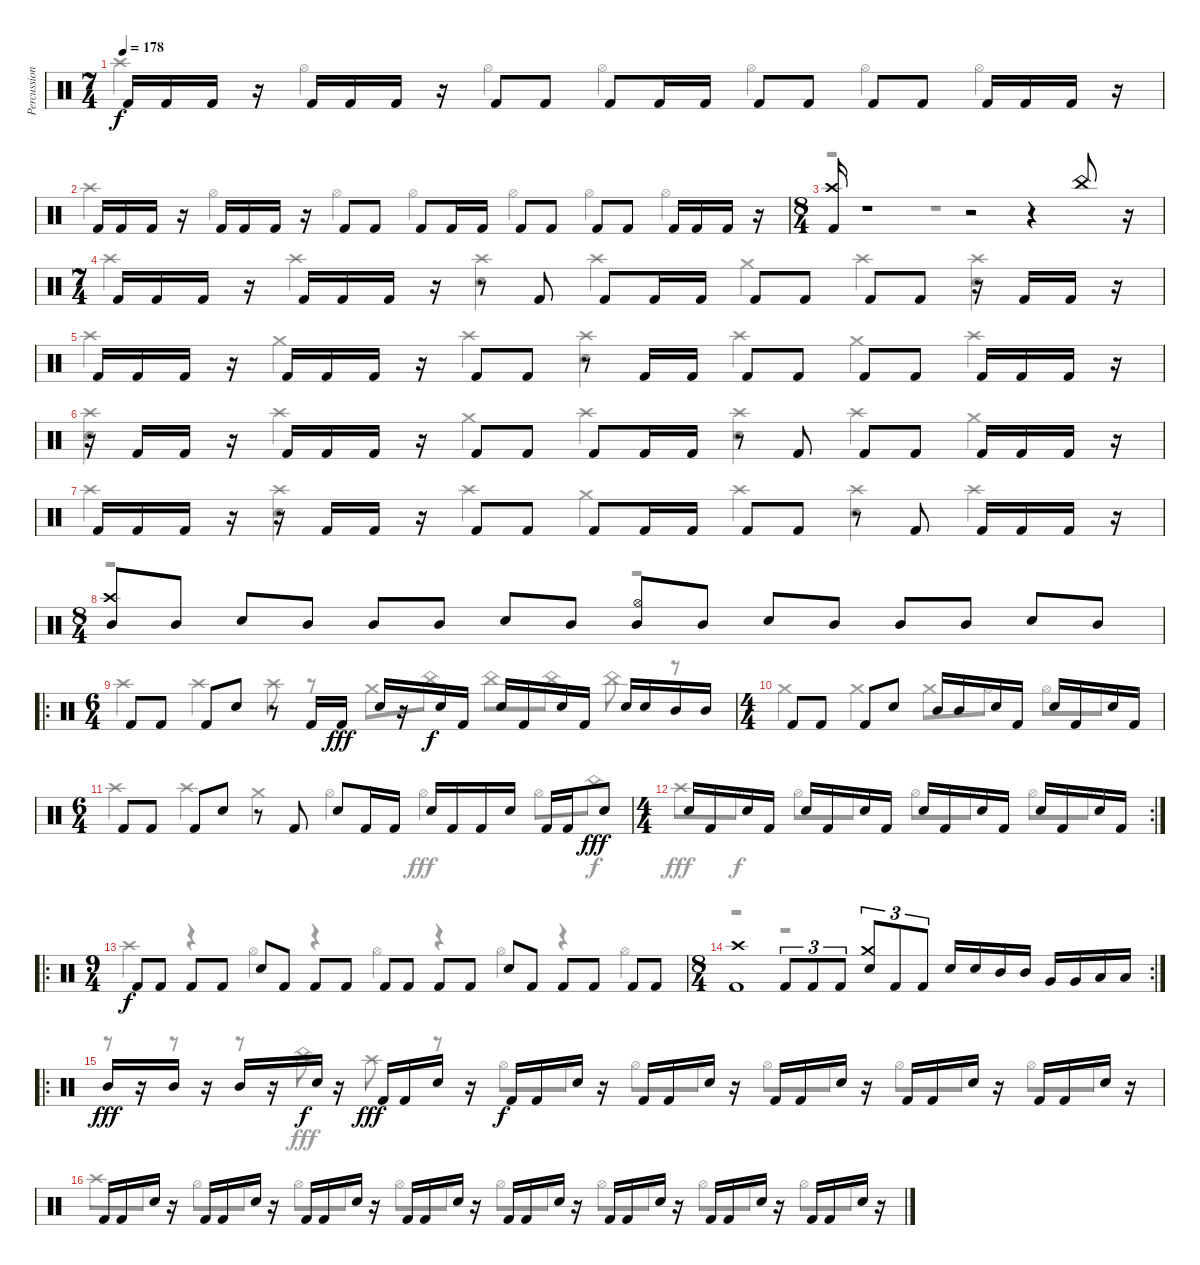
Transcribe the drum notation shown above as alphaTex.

\track ("Percussion" "Percussion") {instrument percussion}
\staff {score}
\articulation defaults
\voice
\ts (7 4)
\tempo 178
\clef neutral
\ks c "Kick (hit) 2".16{dy f} "Kick (hit) 2".16 "Kick (hit) 2".16
r.16 "Kick (hit) 2".16 "Kick (hit) 2".16 "Kick (hit) 2".16 r.16 "Kick (hit) 2".8 "Kick (hit) 2".8 "Kick (hit) 2".8 "Kick (hit) 2".16 "Kick (hit) 2".16 "Kick (hit) 2".8 "Kick (hit) 2".8 "Kick (hit) 2".8 "Kick (hit) 2".8 "Kick (hit) 2".16 "Kick (hit) 2".16 "Kick (hit) 2".16 r.16 |
"Kick (hit) 2".16 "Kick (hit) 2".16 "Kick (hit) 2".16 r.16 "Kick (hit) 2".16 "Kick (hit) 2".16 "Kick (hit) 2".16 r.16 "Kick (hit) 2".8 "Kick (hit) 2".8 "Kick (hit) 2".8 "Kick (hit) 2".16 "Kick (hit) 2".16 "Kick (hit) 2".8 "Kick (hit) 2".8 "Kick (hit) 2".8 "Kick (hit) 2".8 "Kick (hit) 2".16 "Kick (hit) 2".16 "Kick (hit) 2".16 r.16 |
\ts (8 4)
("Crash high (hit)" "Kick (hit) 2").16 r.1 r.2 r.4 "China (hit)".8 r.16 |
\ts (7 4)
"Kick (hit) 2".16 "Kick (hit) 2".16 "Kick (hit) 2".16 r.16 "Kick (hit) 2".16 "Kick (hit) 2".16 "Kick (hit) 2".16 r.16 r.8 "Kick (hit) 2".8 "Kick (hit) 2".8 "Kick (hit) 2".16 "Kick (hit) 2".16 "Kick (hit) 2".8 "Kick (hit) 2".8 "Kick (hit) 2".8 "Kick (hit) 2".8 r.16 "Kick (hit) 2".16 "Kick (hit) 2".16 r.16 |
"Kick (hit) 2".16 "Kick (hit) 2".16 "Kick (hit) 2".16 r.16 "Kick (hit) 2".16 "Kick (hit) 2".16 "Kick (hit) 2".16 r.16 "Kick (hit) 2".8 "Kick (hit) 2".8 r.8 "Kick (hit) 2".16 "Kick (hit) 2".16 "Kick (hit) 2".8 "Kick (hit) 2".8 "Kick (hit) 2".8 "Kick (hit) 2".8 "Kick (hit) 2".16 "Kick (hit) 2".16 "Kick (hit) 2".16 r.16 |
r.16 "Kick (hit) 2".16 "Kick (hit) 2".16 r.16 "Kick (hit) 2".16 "Kick (hit) 2".16 "Kick (hit) 2".16 r.16 "Kick (hit) 2".8 "Kick (hit) 2".8 "Kick (hit) 2".8 "Kick (hit) 2".16 "Kick (hit) 2".16 r.8 "Kick (hit) 2".8 "Kick (hit) 2".8 "Kick (hit) 2".8 "Kick (hit) 2".16 "Kick (hit) 2".16 "Kick (hit) 2".16 r.16 |
"Kick (hit) 2".16 "Kick (hit) 2".16 "Kick (hit) 2".16 r.16 r.16 "Kick (hit) 2".16 "Kick (hit) 2".16 r.16 "Kick (hit) 2".8 "Kick (hit) 2".8 "Kick (hit) 2".8 "Kick (hit) 2".16 "Kick (hit) 2".16 "Kick (hit) 2".8 "Kick (hit) 2".8 r.8 "Kick (hit) 2".8 "Kick (hit) 2".16 "Kick (hit) 2".16 "Kick (hit) 2".16 r.16 |
\ts (8 4)
("Crash high (hit)" "Mid Tom (hit)").8 "Mid Tom (hit)".8 "Electric Snare (hit)".8 "Mid Tom (hit)".8 "Mid Tom (hit)".8 "Mid Tom (hit)".8 "Electric Snare (hit)".8 "Mid Tom (hit)".8 ("Hi-Hat (open)" "Mid Tom (hit)").8 "Mid Tom (hit)".8 "Electric Snare (hit)".8 "Mid Tom (hit)".8 "Mid Tom (hit)".8 "Mid Tom (hit)".8 "Electric Snare (hit)".8 "Mid Tom (hit)".8 |
\ro
\ts (6 4)
"Kick (hit) 2".8 "Kick (hit) 2".8 "Kick (hit) 2".8 "Electric Snare (hit)".8 r.8 "Kick (hit) 2".16 "Kick (hit) 2".16{dy fff} "Electric Snare (hit)".16 r.16 "Electric Snare (hit)".16{dy f} "Kick (hit) 2".16 "Electric Snare (hit)".16 "Kick (hit) 2".16 "Electric Snare (hit)".16 "Kick (hit) 2".16 "Electric Snare (hit)".16 "Electric Snare (hit)".16 "Mid Tom (hit)".16 "Mid Tom (hit)".16 |
\ts (4 4)
"Kick (hit) 2".8 "Kick (hit) 2".8 "Kick (hit) 2".8 "Electric Snare (hit)".8 "Mid Tom (hit)".16 "Mid Tom (hit)".16 "Electric Snare (hit)".16 "Kick (hit) 2".16 "Electric Snare (hit)".16 "Kick (hit) 2".16 "Electric Snare (hit)".16 "Kick (hit) 2".16 |
\ts (6 4)
"Kick (hit) 2".8 "Kick (hit) 2".8 "Kick (hit) 2".8 "Electric Snare (hit)".8 r.8 "Kick (hit) 2".8 "Electric Snare (hit)".8 "Kick (hit) 2".16 "Kick (hit) 2".16 "Electric Snare (hit)".16 "Kick (hit) 2".16 "Kick (hit) 2".16 "Electric Snare (hit)".16 "Kick (hit) 2".16 "Kick (hit) 2".16 "Electric Snare (hit)".8{dy fff} |
\rc 2
\ts (4 4)
"Electric Snare (hit)".16 "Kick (hit) 2".16 "Electric Snare (hit)".16 "Kick (hit) 2".16 "Electric Snare (hit)".16 "Kick (hit) 2".16 "Electric Snare (hit)".16 "Kick (hit) 2".16 "Electric Snare (hit)".16 "Kick (hit) 2".16 "Electric Snare (hit)".16 "Kick (hit) 2".16 "Electric Snare (hit)".16 "Kick (hit) 2".16 "Electric Snare (hit)".16 "Kick (hit) 2".16 |
\ro
\ts (9 4)
"Kick (hit) 2".8{dy f} "Kick (hit) 2".8 "Kick (hit) 2".8 "Kick (hit) 2".8 "Electric Snare (hit)".8 "Kick (hit) 2".8 "Kick (hit) 2".8 "Kick (hit) 2".8 "Kick (hit) 2".8 "Kick (hit) 2".8 "Kick (hit) 2".8 "Kick (hit) 2".8 "Electric Snare (hit)".8 "Kick (hit) 2".8 "Kick (hit) 2".8 "Kick (hit) 2".8 "Kick (hit) 2".8 "Kick (hit) 2".8 |
\rc 2
\ts (8 4)
("Crash high (hit)" "Kick (hit) 2").1 "Kick (hit) 2".8{tu (3 2)} "Kick (hit) 2".8{tu (3 2)} "Kick (hit) 2".8{tu (3 2)} ("Crash medium (hit)" "Electric Snare (hit)").8{tu (3 2)} "Kick (hit) 2".8{tu (3 2)} "Kick (hit) 2".8{tu (3 2)} "Electric Snare (hit)".16 "Electric Snare (hit)".16 "Mid Tom (hit)".16 "Mid Tom (hit)".16 "Very Low Tom (hit)".16 "Very Low Tom (hit)".16 "Low Floor Tom (hit)".16 "Low Floor Tom (hit)".16 |
\ro "Mid Tom (hit)".16{dy fff}
r.16 "Mid Tom (hit)".16 r.16 "Mid Tom (hit)".16 r.16 "Electric Snare (hit)".16{dy f} r.16 "Kick (hit) 2".16{dy fff} "Kick (hit) 2".16 "Electric Snare (hit)".16 r.16 "Kick (hit) 2".16{dy f} "Kick (hit) 2".16 "Electric Snare (hit)".16 r.16 "Kick (hit) 2".16 "Kick (hit) 2".16 "Electric Snare (hit)".16 r.16 "Kick (hit) 2".16 "Kick (hit) 2".16 "Electric Snare (hit)".16 r.16 "Kick (hit) 2".16 "Kick (hit) 2".16 "Electric Snare (hit)".16 r.16 "Kick (hit) 2".16 "Kick (hit) 2".16 "Electric Snare (hit)".16 r.16 |
"Kick (hit) 2".16 "Kick (hit) 2".16 "Electric Snare (hit)".16 r.16 "Kick (hit) 2".16 "Kick (hit) 2".16 "Electric Snare (hit)".16 r.16 "Kick (hit) 2".16 "Kick (hit) 2".16 "Electric Snare (hit)".16 r.16 "Kick (hit) 2".16 "Kick (hit) 2".16 "Electric Snare (hit)".16 r.16 "Kick (hit) 2".16 "Kick (hit) 2".16 "Electric Snare (hit)".16 r.16 "Kick (hit) 2".16 "Kick (hit) 2".16 "Electric Snare (hit)".16 r.16 "Kick (hit) 2".16 "Kick (hit) 2".16 "Electric Snare (hit)".16 r.16 "Kick (hit) 2".16 "Kick (hit) 2".16 "Electric Snare (hit)".16 r.16
\voice
\clef neutral
\ottava regular
\simile none
\ks c "Crash high (hit)".4{dy f} "Hi-Hat (open)".4 "Hi-Hat (open)".4 "Hi-Hat (open)".4 "Hi-Hat (open)".4 "Hi-Hat (open)".4 "Hi-Hat (open)".4
|
"Crash high (hit)".4 "Hi-Hat (open)".4 "Hi-Hat (open)".4 "Hi-Hat (open)".4 "Hi-Hat (open)".4 "Hi-Hat (open)".4 "Hi-Hat (open)".4 |
r.1 r.1 |
"Crash high (hit)".4 "Crash high (hit)".4 ("Crash high (hit)" "Electric Snare (hit)").4 "Crash high (hit)".4 "Crash medium (hit)".4 "Crash high (hit)".4 ("Crash high (hit)" "Electric Snare (hit)").4 |
"Crash high (hit)".4 "Crash medium (hit)".4 "Crash high (hit)".4 ("Crash high (hit)" "Electric Snare (hit)").4 "Crash high (hit)".4 "Crash medium (hit)".4 "Crash high (hit)".4 |
("Crash high (hit)" "Electric Snare (hit)").4 "Crash high (hit)".4 "Crash medium (hit)".4 "Crash high (hit)".4 ("Crash high (hit)" "Electric Snare (hit)").4 "Crash high (hit)".4 "Crash medium (hit)".4 |
"Crash high (hit)".4 ("Crash high (hit)" "Electric Snare (hit)").4 "Crash high (hit)".4 "Crash medium (hit)".4 "Crash high (hit)".4 ("Crash high (hit)" "Electric Snare (hit)").4 "Crash high (hit)".4 |
r.1 r.1 |
"Crash high (hit)".4 "Crash high (hit)".4 "Crash high (hit)".8 r.8 "Crash medium (hit)".8 "China (hit)".8 "China (hit)".8 "China (hit)".8 "China (hit)".8 r.8 |
"Crash medium (hit)".4 "Crash medium (hit)".4 "Crash medium (hit)".8 "Hi-Hat (open)".8 "Hi-Hat (open)".8 "Hi-Hat (open)".8 |
"Crash high (hit)".4 "Crash high (hit)".4 "Crash medium (hit)".4 "Hi-Hat (open)".4 "Hi-Hat (open)".4{dy fff} "Hi-Hat (open)".8 "China (hit)".8{dy f} |
"Crash high (hit)".8{dy fff} "Hi-Hat (open)".8{dy f} "Hi-Hat (open)".8 "Hi-Hat (open)".8 "Hi-Hat (open)".8 "Hi-Hat (open)".8 "Hi-Hat (open)".8 "Hi-Hat (open)".8 |
"Crash high (hit)".4 r.4 "Hi-Hat (open)".4 r.4 "Hi-Hat (open)".4 r.4 "Hi-Hat (open)".4 r.4 "Hi-Hat (open)".4 |
r.1 r.1 |
r.8 r.8 r.8 "China (hit)".8{dy fff} "Crash high (hit)".8 r.8 "Hi-Hat (open)".8{dy f} "Hi-Hat (open)".8 "Hi-Hat (open)".8 "Hi-Hat (open)".8 "Hi-Hat (open)".8 "Hi-Hat (open)".8 "Hi-Hat (open)".8 "Hi-Hat (open)".8 "Hi-Hat (open)".8 "Hi-Hat (open)".8 |
"Crash high (hit)".8 "Hi-Hat (open)".8 "Hi-Hat (open)".8 "Hi-Hat (open)".8 "Hi-Hat (open)".8 "Hi-Hat (open)".8 "Hi-Hat (open)".8 "Hi-Hat (open)".8 "Hi-Hat (open)".8 "Hi-Hat (open)".8 "Hi-Hat (open)".8 "Hi-Hat (open)".8 "Hi-Hat (open)".8 "Hi-Hat (open)".8 "Hi-Hat (open)".8 "Hi-Hat (open)".8
